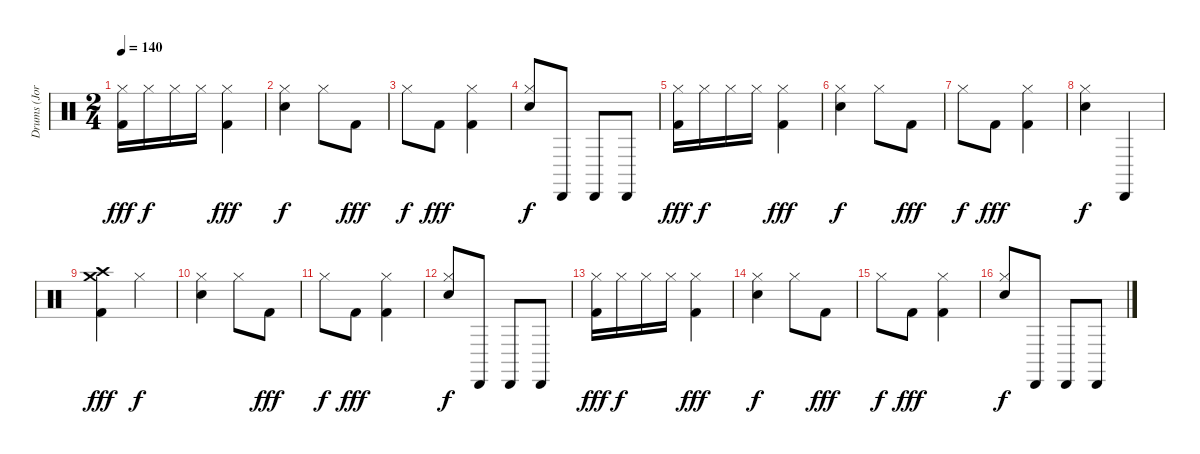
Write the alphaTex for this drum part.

\track ("Drums (Jordan Hastings)" "Drums (Jor") {instrument percussion}
\staff {score}
\articulation defaults
\ts (2 4)
\tempo 140
\clef neutral
\ks c
("Hi-Hat (closed)" "Kick (hit) 2").16{dy fff} "Hi-Hat (closed)".16{dy f} "Hi-Hat (closed)".16 "Hi-Hat (closed)".16 ("Hi-Hat (closed)" "Kick (hit) 2").4{dy fff} |
("Hi-Hat (closed)" "Electric Snare (hit)").4{dy f} "Hi-Hat (closed)".8 "Kick (hit) 2".8{dy fff} |
"Hi-Hat (closed)".8{dy f} "Kick (hit) 2".8{dy fff} ("Hi-Hat (closed)" "Kick (hit) 2").4 |
("Hi-Hat (closed)" "Electric Snare (hit)").8{dy f} "Cabasa (hit)".8 "Cabasa (hit)".8 "Cabasa (hit)".8 |
("Hi-Hat (closed)" "Kick (hit) 2").16{dy fff} "Hi-Hat (closed)".16{dy f} "Hi-Hat (closed)".16 "Hi-Hat (closed)".16 ("Hi-Hat (closed)" "Kick (hit) 2").4{dy fff} |
("Hi-Hat (closed)" "Electric Snare (hit)").4{dy f} "Hi-Hat (closed)".8 "Kick (hit) 2".8{dy fff} |
"Hi-Hat (closed)".8{dy f} "Kick (hit) 2".8{dy fff} ("Hi-Hat (closed)" "Kick (hit) 2").4 |
("Hi-Hat (closed)" "Electric Snare (hit)").4{dy f} "Cabasa (hit)".4 |
("Crash medium (hit)" "Crash high (hit)" "Kick (hit) 2").4{dy fff} "Hi-Hat (closed)".4{dy f} |
("Hi-Hat (closed)" "Electric Snare (hit)").4 "Hi-Hat (closed)".8 "Kick (hit) 2".8{dy fff} |
"Hi-Hat (closed)".8{dy f} "Kick (hit) 2".8{dy fff} ("Hi-Hat (closed)" "Kick (hit) 2").4 |
("Hi-Hat (closed)" "Electric Snare (hit)").8{dy f} "Cabasa (hit)".8 "Cabasa (hit)".8 "Cabasa (hit)".8 |
("Hi-Hat (closed)" "Kick (hit) 2").16{dy fff} "Hi-Hat (closed)".16{dy f} "Hi-Hat (closed)".16 "Hi-Hat (closed)".16 ("Hi-Hat (closed)" "Kick (hit) 2").4{dy fff} |
("Hi-Hat (closed)" "Electric Snare (hit)").4{dy f} "Hi-Hat (closed)".8 "Kick (hit) 2".8{dy fff} |
"Hi-Hat (closed)".8{dy f} "Kick (hit) 2".8{dy fff} ("Hi-Hat (closed)" "Kick (hit) 2").4 |
("Hi-Hat (closed)" "Electric Snare (hit)").8{dy f} "Cabasa (hit)".8 "Cabasa (hit)".8 "Cabasa (hit)".8
